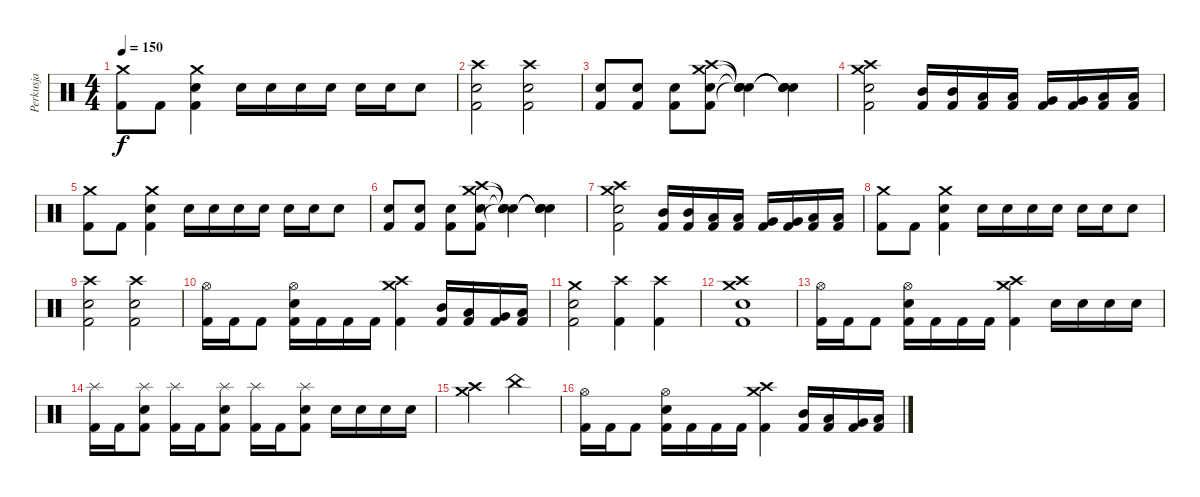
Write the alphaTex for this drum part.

\track ("Perkusja" "Perkusja") {instrument percussion}
\staff {score}
\articulation defaults
\ts (4 4)
\tempo 150
\clef neutral
\ks c
("Crash medium (hit)" "Kick (hit) 2").8{dy f} "Kick (hit) 2".8 ("Crash medium (hit)" "Electric Snare (hit)" "Kick (hit) 2").4 "Electric Snare (hit)".16 "Electric Snare (hit)".16 "Electric Snare (hit)".16 "Electric Snare (hit)".16 "Snare (hit) 2".16 "Snare (hit) 2".16 "Snare (hit) 2".8 |
("Kick (hit) 2" "Crash high (hit)" "Snare (hit) 2").2 ("Kick (hit) 2" "Crash high (hit)" "Snare (hit) 2").2 |
("Snare (hit) 2" "Kick (hit) 2").8 ("Snare (hit) 2" "Kick (hit) 2").8 ("Snare (hit) 2" "Kick (hit) 2").8 ("Crash high (hit)" "Kick (hit) 2" "Crash medium (hit)" "Electric Snare (hit)").8 ("Snare (hit)"{t} "Snare (hit)"{t} "Snare (hit)"{t} "Snare (hit)"{t}).4 ("Snare (hit)"{t} "Snare (hit)"{t} "Snare (hit)"{t} "Snare (hit)"{t}).4 |
("Crash medium (hit)" "Crash high (hit)" "Electric Snare (hit)" "Kick (hit) 2").2 ("Mid Tom (hit)" "Kick (hit) 2").16 ("Mid Tom (hit)" "Kick (hit) 2").16 ("Low Tom (hit)" "Kick (hit) 2").16 ("Low Tom (hit)" "Kick (hit) 2").16 ("Very Low Tom (hit)" "Kick (hit) 2").16 ("Very Low Tom (hit)" "Kick (hit) 2").16 ("Low Floor Tom (hit)" "Kick (hit) 2").16 ("Low Floor Tom (hit)" "Kick (hit) 2").16 |
("Crash medium (hit)" "Kick (hit) 2").8 "Kick (hit) 2".8 ("Crash medium (hit)" "Electric Snare (hit)" "Kick (hit) 2").4 "Electric Snare (hit)".16 "Electric Snare (hit)".16 "Electric Snare (hit)".16 "Electric Snare (hit)".16 "Snare (hit) 2".16 "Snare (hit) 2".16 "Snare (hit) 2".8 |
("Snare (hit) 2" "Kick (hit) 2").8 ("Snare (hit) 2" "Kick (hit) 2").8 ("Snare (hit) 2" "Kick (hit) 2").8 ("Crash high (hit)" "Kick (hit) 2" "Crash medium (hit)" "Electric Snare (hit)").8 ("Snare (hit)"{t} "Snare (hit)"{t} "Snare (hit)"{t} "Snare (hit)"{t}).4 ("Snare (hit)"{t} "Snare (hit)"{t} "Snare (hit)"{t} "Snare (hit)"{t}).4 |
("Crash medium (hit)" "Crash high (hit)" "Electric Snare (hit)" "Kick (hit) 2").2 ("Mid Tom (hit)" "Kick (hit) 2").16 ("Mid Tom (hit)" "Kick (hit) 2").16 ("Low Tom (hit)" "Kick (hit) 2").16 ("Low Tom (hit)" "Kick (hit) 2").16 ("Very Low Tom (hit)" "Kick (hit) 2").16 ("Very Low Tom (hit)" "Kick (hit) 2").16 ("Low Floor Tom (hit)" "Kick (hit) 2").16 ("Low Floor Tom (hit)" "Kick (hit) 2").16 |
("Crash medium (hit)" "Kick (hit) 2").8 "Kick (hit) 2".8 ("Crash medium (hit)" "Electric Snare (hit)" "Kick (hit) 2").4 "Electric Snare (hit)".16 "Electric Snare (hit)".16 "Electric Snare (hit)".16 "Electric Snare (hit)".16 "Snare (hit) 2".16 "Snare (hit) 2".16 "Snare (hit) 2".8 |
("Kick (hit) 2" "Crash high (hit)" "Snare (hit) 2").2 ("Kick (hit) 2" "Crash high (hit)" "Snare (hit) 2").2 |
("Hi-Hat (open)" "Kick (hit) 2").16 "Kick (hit) 2".16 "Kick (hit) 2".8 ("Hi-Hat (open)" "Electric Snare (hit)" "Kick (hit) 2").16 "Kick (hit) 2".16 "Kick (hit) 2".16 "Kick (hit) 2".16 ("Crash high (hit)" "Crash medium (hit)" "Kick (hit) 2").4 ("Mid Tom (hit)" "Kick (hit) 2").16 ("Low Tom (hit)" "Kick (hit) 2").16 ("Very Low Tom (hit)" "Kick (hit) 2").16 ("Low Floor Tom (hit)" "Kick (hit) 2").16 |
("Crash medium (hit)" "Snare (hit) 2" "Kick (hit) 2").2 ("Kick (hit) 2" "Crash high (hit)").4 ("Kick (hit) 2" "Crash high (hit)").4 |
("Crash medium (hit)" "Crash high (hit)" "Kick (hit) 2" "Electric Snare (hit)").1 |
("Hi-Hat (open)" "Kick (hit) 2").16 "Kick (hit) 2".16 "Kick (hit) 2".8 ("Hi-Hat (open)" "Electric Snare (hit)" "Kick (hit) 2").16 "Kick (hit) 2".16 "Kick (hit) 2".16 "Kick (hit) 2".16 ("Crash high (hit)" "Crash medium (hit)" "Kick (hit) 2").4 "Electric Snare (hit)".16 "Electric Snare (hit)".16 "Electric Snare (hit)".16 "Electric Snare (hit)".16 |
("Splash (hit)" "Kick (hit) 2").16 "Kick (hit) 2".16 ("Splash (hit)" "Electric Snare (hit)" "Kick (hit) 2").8 ("Splash (hit)" "Kick (hit) 2").16 "Kick (hit) 2".16 ("Splash (hit)" "Electric Snare (hit)" "Kick (hit) 2").8 ("Splash (hit)" "Kick (hit) 2").16 "Kick (hit) 2".16 ("Splash (hit)" "Electric Snare (hit)" "Kick (hit) 2").8 "Electric Snare (hit)".16 "Electric Snare (hit)".16 "Electric Snare (hit)".16 "Electric Snare (hit)".16 |
("Crash medium (hit)" "Crash high (hit)").2 "China (hit)".2 |
("Hi-Hat (open)" "Kick (hit) 2").16 "Kick (hit) 2".16 "Kick (hit) 2".8 ("Hi-Hat (open)" "Electric Snare (hit)" "Kick (hit) 2").16 "Kick (hit) 2".16 "Kick (hit) 2".16 "Kick (hit) 2".16 ("Crash high (hit)" "Crash medium (hit)" "Kick (hit) 2").4 ("Mid Tom (hit)" "Kick (hit) 2").16 ("Low Tom (hit)" "Kick (hit) 2").16 ("Very Low Tom (hit)" "Kick (hit) 2").16 ("Low Floor Tom (hit)" "Kick (hit) 2").16
